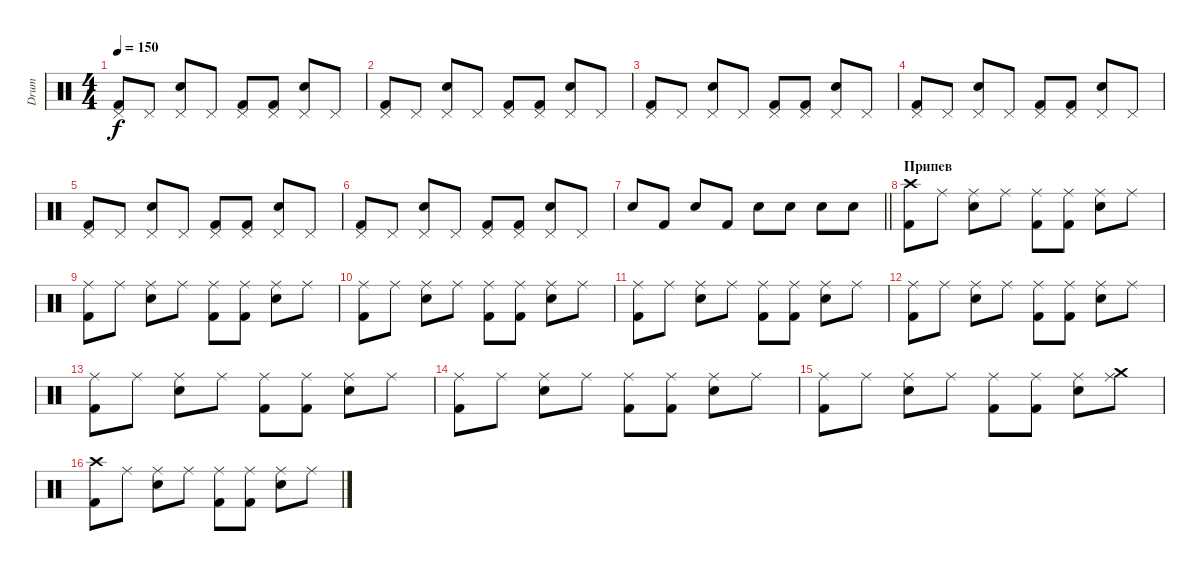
\track ("Drum" "Drum") {instrument percussion}
\staff {score}
\articulation defaults
\ts (4 4)
\tempo 150
\clef neutral
\ks c
("Pedal Hi-Hat (hit)" "Kick (hit) 2").8{dy f} "Pedal Hi-Hat (hit)".8 ("Pedal Hi-Hat (hit)" "Electric Snare (hit)").8 "Pedal Hi-Hat (hit)".8 ("Pedal Hi-Hat (hit)" "Kick (hit) 2").8 ("Pedal Hi-Hat (hit)" "Kick (hit) 2").8 ("Pedal Hi-Hat (hit)" "Electric Snare (hit)").8 "Pedal Hi-Hat (hit)".8 |
("Pedal Hi-Hat (hit)" "Kick (hit) 2").8 "Pedal Hi-Hat (hit)".8 ("Pedal Hi-Hat (hit)" "Electric Snare (hit)").8 "Pedal Hi-Hat (hit)".8 ("Pedal Hi-Hat (hit)" "Kick (hit) 2").8 ("Pedal Hi-Hat (hit)" "Kick (hit) 2").8 ("Pedal Hi-Hat (hit)" "Electric Snare (hit)").8 "Pedal Hi-Hat (hit)".8 |
("Pedal Hi-Hat (hit)" "Kick (hit) 2").8 "Pedal Hi-Hat (hit)".8 ("Pedal Hi-Hat (hit)" "Electric Snare (hit)").8 "Pedal Hi-Hat (hit)".8 ("Pedal Hi-Hat (hit)" "Kick (hit) 2").8 ("Pedal Hi-Hat (hit)" "Kick (hit) 2").8 ("Pedal Hi-Hat (hit)" "Electric Snare (hit)").8 "Pedal Hi-Hat (hit)".8 |
("Pedal Hi-Hat (hit)" "Kick (hit) 2").8 "Pedal Hi-Hat (hit)".8 ("Pedal Hi-Hat (hit)" "Electric Snare (hit)").8 "Pedal Hi-Hat (hit)".8 ("Pedal Hi-Hat (hit)" "Kick (hit) 2").8 ("Pedal Hi-Hat (hit)" "Kick (hit) 2").8 ("Pedal Hi-Hat (hit)" "Electric Snare (hit)").8 "Pedal Hi-Hat (hit)".8 |
("Pedal Hi-Hat (hit)" "Kick (hit) 2").8 "Pedal Hi-Hat (hit)".8 ("Pedal Hi-Hat (hit)" "Electric Snare (hit)").8 "Pedal Hi-Hat (hit)".8 ("Pedal Hi-Hat (hit)" "Kick (hit) 2").8 ("Pedal Hi-Hat (hit)" "Kick (hit) 2").8 ("Pedal Hi-Hat (hit)" "Electric Snare (hit)").8 "Pedal Hi-Hat (hit)".8 |
("Pedal Hi-Hat (hit)" "Kick (hit) 2").8 "Pedal Hi-Hat (hit)".8 ("Pedal Hi-Hat (hit)" "Electric Snare (hit)").8 "Pedal Hi-Hat (hit)".8 ("Pedal Hi-Hat (hit)" "Kick (hit) 2").8 ("Pedal Hi-Hat (hit)" "Kick (hit) 2").8 ("Pedal Hi-Hat (hit)" "Electric Snare (hit)").8 "Pedal Hi-Hat (hit)".8 |
\barLineRight lightlight "Electric Snare (hit)".8 "Kick (hit) 2".8 "Electric Snare (hit)".8 "Kick (hit) 2".8 "Electric Snare (hit)".8 "Electric Snare (hit)".8 "Electric Snare (hit)".8 "Electric Snare (hit)".8
|
\section ("" "Припев")
("Crash high (hit)" "Kick (hit) 2").8 "Ride (middle)".8 ("Ride (middle)" "Electric Snare (hit)").8 "Ride (middle)".8 ("Ride (middle)" "Kick (hit) 2").8 ("Ride (middle)" "Kick (hit) 2").8 ("Ride (middle)" "Electric Snare (hit)").8 "Ride (middle)".8 |
("Ride (middle)" "Kick (hit) 2").8 "Ride (middle)".8 ("Ride (middle)" "Electric Snare (hit)").8 "Ride (middle)".8 ("Ride (middle)" "Kick (hit) 2").8 ("Ride (middle)" "Kick (hit) 2").8 ("Ride (middle)" "Electric Snare (hit)").8 "Ride (middle)".8 |
("Ride (middle)" "Kick (hit) 2").8 "Ride (middle)".8 ("Ride (middle)" "Electric Snare (hit)").8 "Ride (middle)".8 ("Ride (middle)" "Kick (hit) 2").8 ("Ride (middle)" "Kick (hit) 2").8 ("Ride (middle)" "Electric Snare (hit)").8 "Ride (middle)".8 |
("Ride (middle)" "Kick (hit) 2").8 "Ride (middle)".8 ("Ride (middle)" "Electric Snare (hit)").8 "Ride (middle)".8 ("Ride (middle)" "Kick (hit) 2").8 ("Ride (middle)" "Kick (hit) 2").8 ("Ride (middle)" "Electric Snare (hit)").8 "Ride (middle)".8 |
("Ride (middle)" "Kick (hit) 2").8 "Ride (middle)".8 ("Ride (middle)" "Electric Snare (hit)").8 "Ride (middle)".8 ("Ride (middle)" "Kick (hit) 2").8 ("Ride (middle)" "Kick (hit) 2").8 ("Ride (middle)" "Electric Snare (hit)").8 "Ride (middle)".8 |
("Ride (middle)" "Kick (hit) 2").8 "Ride (middle)".8 ("Ride (middle)" "Electric Snare (hit)").8 "Ride (middle)".8 ("Ride (middle)" "Kick (hit) 2").8 ("Ride (middle)" "Kick (hit) 2").8 ("Ride (middle)" "Electric Snare (hit)").8 "Ride (middle)".8 |
("Ride (middle)" "Kick (hit) 2").8 "Ride (middle)".8 ("Ride (middle)" "Electric Snare (hit)").8 "Ride (middle)".8 ("Ride (middle)" "Kick (hit) 2").8 ("Ride (middle)" "Kick (hit) 2").8 ("Ride (middle)" "Electric Snare (hit)").8 "Ride (middle)".8 |
("Ride (middle)" "Kick (hit) 2").8 "Ride (middle)".8 ("Ride (middle)" "Electric Snare (hit)").8 "Ride (middle)".8 ("Ride (middle)" "Kick (hit) 2").8 ("Ride (middle)" "Kick (hit) 2").8 ("Ride (middle)" "Electric Snare (hit)").8 ("Ride (middle)" "Crash medium (hit)").8 |
("Crash high (hit)" "Kick (hit) 2").8 "Ride (middle)".8 ("Ride (middle)" "Electric Snare (hit)").8 "Ride (middle)".8 ("Ride (middle)" "Kick (hit) 2").8 ("Ride (middle)" "Kick (hit) 2").8 ("Ride (middle)" "Electric Snare (hit)").8 "Ride (middle)".8
